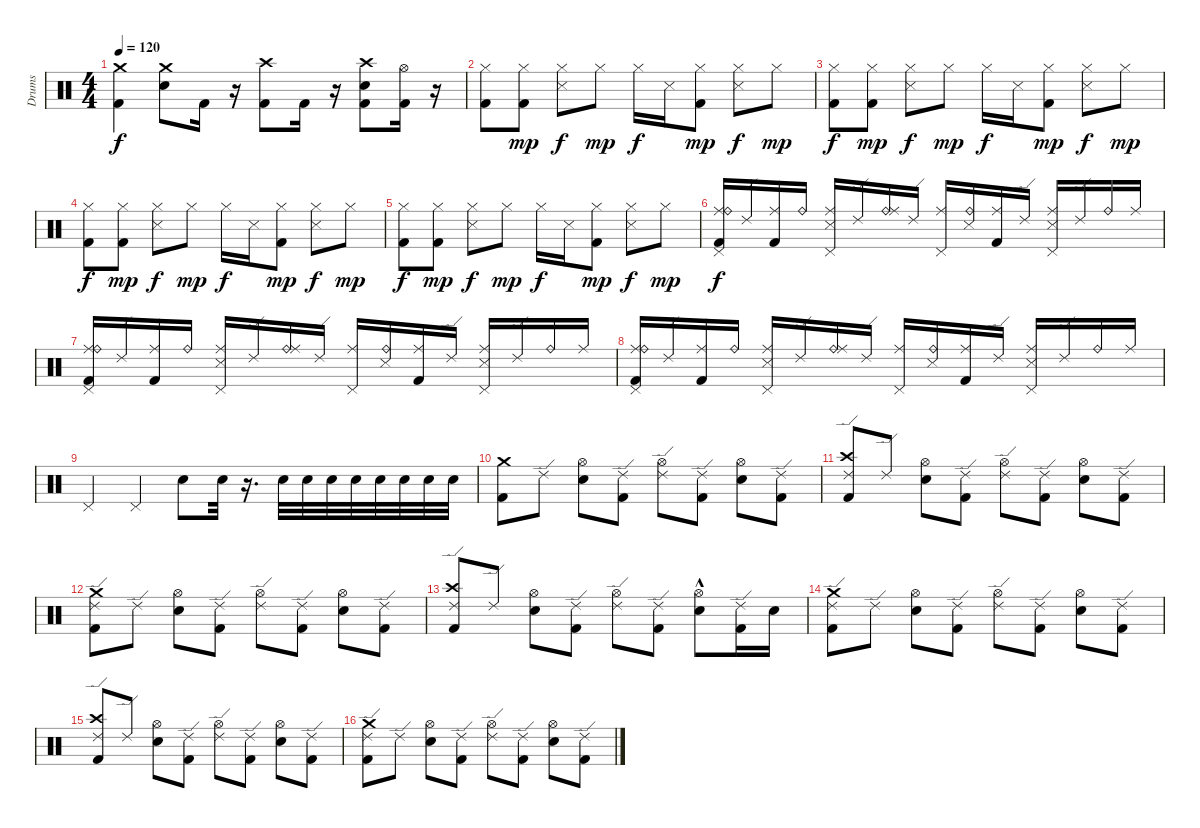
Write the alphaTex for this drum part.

\track ("Drums" "Drums") {instrument percussion}
\staff {score}
\articulation defaults
\ts (4 4)
\tempo 120
\clef neutral
\ks c
("Crash medium (hit)" "Kick (hit) 2").4{dy f} ("Crash medium (hit)" "Electric Snare (hit)").8 "Kick (hit) 2".16 r.16 ("Kick (hit) 2" "Crash high (hit)").8 "Kick (hit) 2".16 r.16 ("Kick (hit) 2" "Crash high (hit)" "Electric Snare (hit)").8 ("Kick (hit) 2" "Hi-Hat (open)").16 r.16 |
("Hi-Hat (closed)" "Kick (hit) 2").8 ("Kick (hit) 2" "Hi-Hat (closed)").8{dy mp} ("Hi-Hat (closed)" "Snare (side stick) 3").8{dy f} "Hi-Hat (closed)".8{dy mp} "Hi-Hat (closed)".16{dy f} "Snare (side stick) 3".16 ("Kick (hit) 2" "Hi-Hat (closed)").8{dy mp} ("Hi-Hat (closed)" "Snare (side stick) 3").8{dy f} "Hi-Hat (closed)".8{dy mp} |
("Hi-Hat (closed)" "Kick (hit) 2").8{dy f} ("Kick (hit) 2" "Hi-Hat (closed)").8{dy mp} ("Hi-Hat (closed)" "Snare (side stick) 3").8{dy f} "Hi-Hat (closed)".8{dy mp} "Hi-Hat (closed)".16{dy f} "Snare (side stick) 3".16 ("Kick (hit) 2" "Hi-Hat (closed)").8{dy mp} ("Hi-Hat (closed)" "Snare (side stick) 3").8{dy f} "Hi-Hat (closed)".8{dy mp} |
("Hi-Hat (closed)" "Kick (hit) 2").8{dy f} ("Kick (hit) 2" "Hi-Hat (closed)").8{dy mp} ("Hi-Hat (closed)" "Snare (side stick) 3").8{dy f} "Hi-Hat (closed)".8{dy mp} "Hi-Hat (closed)".16{dy f} "Snare (side stick) 3".16 ("Kick (hit) 2" "Hi-Hat (closed)").8{dy mp} ("Hi-Hat (closed)" "Snare (side stick) 3").8{dy f} "Hi-Hat (closed)".8{dy mp} |
("Hi-Hat (closed)" "Kick (hit) 2").8{dy f} ("Kick (hit) 2" "Hi-Hat (closed)").8{dy mp} ("Hi-Hat (closed)" "Snare (side stick) 3").8{dy f} "Hi-Hat (closed)".8{dy mp} "Hi-Hat (closed)".16{dy f} "Snare (side stick) 3".16 ("Kick (hit) 2" "Hi-Hat (closed)").8{dy mp} ("Hi-Hat (closed)" "Snare (side stick) 3").8{dy f} "Hi-Hat (closed)".8{dy mp} |
("Ride (middle)" "Ride (bell)" "Pedal Hi-Hat (hit)" "Kick (hit) 2").16{dy f} "Ride (edge) 2".16 ("Ride (middle)" "Kick (hit) 2").16 "Ride (bell)".16 ("Snare (side stick) 3" "Ride (middle)" "Pedal Hi-Hat (hit)").16 "Ride (edge) 2".16 ("Ride (bell)" "Ride (middle)").16 "Ride (edge) 2".16 ("Ride (middle)" "Pedal Hi-Hat (hit)").16 ("Ride (bell)" "Snare (side stick) 3").16 ("Ride (middle)" "Kick (hit) 2").16 "Ride (edge) 2".16 ("Snare (side stick) 3" "Ride (middle)" "Pedal Hi-Hat (hit)").16 "Ride (edge) 2".16 "Ride (bell)".16 "Ride (middle)".16 |
("Ride (middle)" "Ride (bell)" "Pedal Hi-Hat (hit)" "Kick (hit) 2").16 "Ride (edge) 2".16 ("Ride (middle)" "Kick (hit) 2").16 "Ride (bell)".16 ("Snare (side stick) 3" "Ride (middle)" "Pedal Hi-Hat (hit)").16 "Ride (edge) 2".16 ("Ride (bell)" "Ride (middle)").16 "Ride (edge) 2".16 ("Ride (middle)" "Pedal Hi-Hat (hit)").16 ("Ride (bell)" "Snare (side stick) 3").16 ("Ride (middle)" "Kick (hit) 2").16 "Ride (edge) 2".16 ("Snare (side stick) 3" "Ride (middle)" "Pedal Hi-Hat (hit)").16 "Ride (edge) 2".16 "Ride (bell)".16 "Ride (middle)".16 |
("Ride (middle)" "Ride (bell)" "Pedal Hi-Hat (hit)" "Kick (hit) 2").16 "Ride (edge) 2".16 ("Ride (middle)" "Kick (hit) 2").16 "Ride (bell)".16 ("Snare (side stick) 3" "Ride (middle)" "Pedal Hi-Hat (hit)").16 "Ride (edge) 2".16 ("Ride (bell)" "Ride (middle)").16 "Ride (edge) 2".16 ("Ride (middle)" "Pedal Hi-Hat (hit)").16 ("Ride (bell)" "Snare (side stick) 3").16 ("Ride (middle)" "Kick (hit) 2").16 "Ride (edge) 2".16 ("Snare (side stick) 3" "Ride (middle)" "Pedal Hi-Hat (hit)").16 "Ride (edge) 2".16 "Ride (bell)".16 "Ride (middle)".16 |
"Pedal Hi-Hat (hit)".4 "Pedal Hi-Hat (hit)".4 "Electric Snare (hit)".8 "Electric Snare (hit)".32 r.16{d} "Electric Snare (hit)".32 "Electric Snare (hit)".32 "Electric Snare (hit)".32 "Electric Snare (hit)".32 "Electric Snare (hit)".32 "Electric Snare (hit)".32 "Electric Snare (hit)".32 "Electric Snare (hit)".32 |
("Crash medium (hit)" "Kick (hit) 2").8 "Ride (edge) 2".8 ("Hi-Hat (open)" "Electric Snare (hit)").8 ("Ride (edge) 2" "Kick (hit) 2").8 ("Ride (edge) 2" "Hi-Hat (open)").8 ("Ride (edge) 2" "Kick (hit) 2").8 ("Hi-Hat (open)" "Electric Snare (hit)").8 ("Ride (edge) 2" "Kick (hit) 2").8 |
("Ride (edge) 2" "Crash high (hit)" "Kick (hit) 2").8 "Ride (edge) 2".8 ("Hi-Hat (open)" "Electric Snare (hit)").8 ("Ride (edge) 2" "Kick (hit) 2").8 ("Ride (edge) 2" "Hi-Hat (open)").8 ("Ride (edge) 2" "Kick (hit) 2").8 ("Hi-Hat (open)" "Electric Snare (hit)").8 ("Ride (edge) 2" "Kick (hit) 2").8 |
("Ride (edge) 2" "Crash medium (hit)" "Kick (hit) 2").8 "Ride (edge) 2".8 ("Hi-Hat (open)" "Electric Snare (hit)").8 ("Ride (edge) 2" "Kick (hit) 2").8 ("Ride (edge) 2" "Hi-Hat (open)").8 ("Ride (edge) 2" "Kick (hit) 2").8 ("Hi-Hat (open)" "Electric Snare (hit)").8 ("Ride (edge) 2" "Kick (hit) 2").8 |
("Ride (edge) 2" "Crash high (hit)" "Kick (hit) 2").8 "Ride (edge) 2".8 ("Hi-Hat (open)" "Electric Snare (hit)").8 ("Ride (edge) 2" "Kick (hit) 2").8 ("Ride (edge) 2" "Hi-Hat (open)").8 ("Ride (edge) 2" "Kick (hit) 2").8 ("Electric Snare (hit)"{hac} "Hi-Hat (open)").8 ("Ride (edge) 2" "Kick (hit) 2").16 "Electric Snare (hit)".16 |
("Ride (edge) 2" "Crash medium (hit)" "Kick (hit) 2").8 "Ride (edge) 2".8 ("Hi-Hat (open)" "Electric Snare (hit)").8 ("Ride (edge) 2" "Kick (hit) 2").8 ("Ride (edge) 2" "Hi-Hat (open)").8 ("Ride (edge) 2" "Kick (hit) 2").8 ("Hi-Hat (open)" "Electric Snare (hit)").8 ("Ride (edge) 2" "Kick (hit) 2").8 |
("Ride (edge) 2" "Crash high (hit)" "Kick (hit) 2").8 "Ride (edge) 2".8 ("Electric Snare (hit)" "Hi-Hat (open)").8 ("Ride (edge) 2" "Kick (hit) 2").8 ("Ride (edge) 2" "Hi-Hat (open)").8 ("Ride (edge) 2" "Kick (hit) 2").8 ("Electric Snare (hit)" "Hi-Hat (open)").8 ("Ride (edge) 2" "Kick (hit) 2").8 |
("Ride (edge) 2" "Crash medium (hit)" "Kick (hit) 2").8 "Ride (edge) 2".8 ("Hi-Hat (open)" "Electric Snare (hit)").8 ("Ride (edge) 2" "Kick (hit) 2").8 ("Ride (edge) 2" "Hi-Hat (open)").8 ("Ride (edge) 2" "Kick (hit) 2").8 ("Hi-Hat (open)" "Electric Snare (hit)").8 ("Ride (edge) 2" "Kick (hit) 2").8
